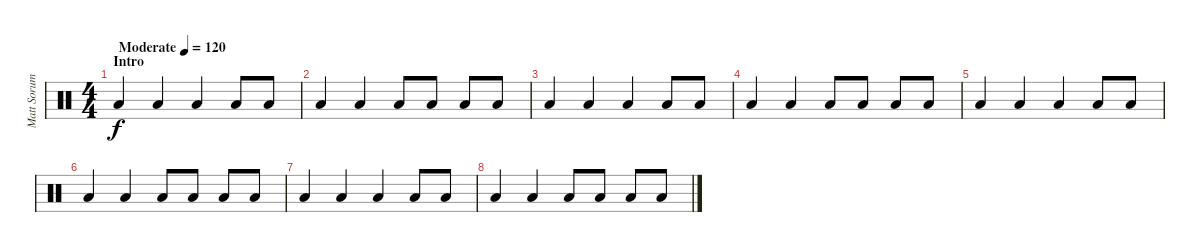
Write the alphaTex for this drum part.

\track ("Matt Sorum" "Matt Sorum") {instrument percussion}
\staff {score}
\articulation defaults
\ts (4 4)
\section ("" "Intro")
\tempo (120 "Moderate")
\clef neutral
\ks c "Low Floor Tom (hit)".4{dy f} "Low Floor Tom (hit)".4 "Low Floor Tom (hit)".4 "Low Floor Tom (hit)".8 "Low Floor Tom (hit)".8
|
"Low Floor Tom (hit)".4 "Low Floor Tom (hit)".4 "Low Floor Tom (hit)".8 "Low Floor Tom (hit)".8 "Low Floor Tom (hit)".8 "Low Floor Tom (hit)".8 |
"Low Floor Tom (hit)".4 "Low Floor Tom (hit)".4 "Low Floor Tom (hit)".4 "Low Floor Tom (hit)".8 "Low Floor Tom (hit)".8 |
"Low Floor Tom (hit)".4 "Low Floor Tom (hit)".4 "Low Floor Tom (hit)".8 "Low Floor Tom (hit)".8 "Low Floor Tom (hit)".8 "Low Floor Tom (hit)".8 |
"Low Floor Tom (hit)".4 "Low Floor Tom (hit)".4 "Low Floor Tom (hit)".4 "Low Floor Tom (hit)".8 "Low Floor Tom (hit)".8 |
"Low Floor Tom (hit)".4 "Low Floor Tom (hit)".4 "Low Floor Tom (hit)".8 "Low Floor Tom (hit)".8 "Low Floor Tom (hit)".8 "Low Floor Tom (hit)".8 |
"Low Floor Tom (hit)".4 "Low Floor Tom (hit)".4 "Low Floor Tom (hit)".4 "Low Floor Tom (hit)".8 "Low Floor Tom (hit)".8 |
"Low Floor Tom (hit)".4 "Low Floor Tom (hit)".4 "Low Floor Tom (hit)".8 "Low Floor Tom (hit)".8 "Low Floor Tom (hit)".8 "Low Floor Tom (hit)".8
